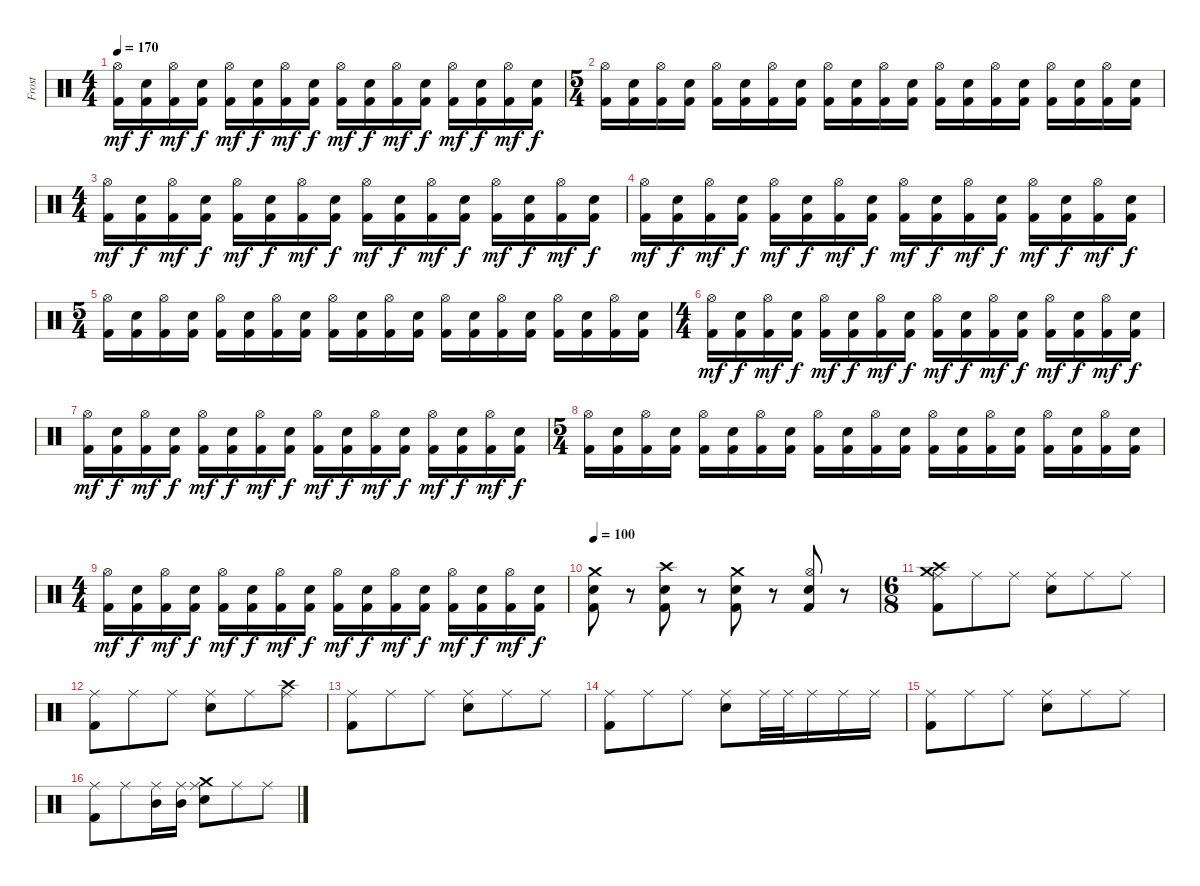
\track ("Frost" "Frost") {instrument percussion}
\staff {score}
\articulation defaults
\ts (4 4)
\tempo 170
\clef neutral
\ks c
("Kick (hit) 2" "Hi-Hat (open)").16{dy mf} ("Kick (hit) 2" "Snare (hit) 2").16{dy f} ("Kick (hit) 2" "Hi-Hat (open)").16{dy mf} ("Kick (hit) 2" "Snare (hit) 2").16{dy f} ("Kick (hit) 2" "Hi-Hat (open)").16{dy mf} ("Kick (hit) 2" "Snare (hit) 2").16{dy f} ("Kick (hit) 2" "Hi-Hat (open)").16{dy mf} ("Kick (hit) 2" "Snare (hit) 2").16{dy f} ("Kick (hit) 2" "Hi-Hat (open)").16{dy mf} ("Kick (hit) 2" "Snare (hit) 2").16{dy f} ("Kick (hit) 2" "Hi-Hat (open)").16{dy mf} ("Kick (hit) 2" "Snare (hit) 2").16{dy f} ("Kick (hit) 2" "Hi-Hat (open)").16{dy mf} ("Kick (hit) 2" "Snare (hit) 2").16{dy f} ("Kick (hit) 2" "Hi-Hat (open)").16{dy mf} ("Kick (hit) 2" "Snare (hit) 2").16{dy f} |
\ts (5 4)
("Kick (hit) 2" "Hi-Hat (open)").16 ("Kick (hit) 2" "Snare (hit) 2").16 ("Kick (hit) 2" "Hi-Hat (open)").16 ("Kick (hit) 2" "Snare (hit) 2").16 ("Kick (hit) 2" "Hi-Hat (open)").16 ("Kick (hit) 2" "Snare (hit) 2").16 ("Kick (hit) 2" "Hi-Hat (open)").16 ("Kick (hit) 2" "Snare (hit) 2").16 ("Kick (hit) 2" "Hi-Hat (open)").16 ("Kick (hit) 2" "Snare (hit) 2").16 ("Kick (hit) 2" "Hi-Hat (open)").16 ("Kick (hit) 2" "Snare (hit) 2").16 ("Kick (hit) 2" "Hi-Hat (open)").16 ("Kick (hit) 2" "Snare (hit) 2").16 ("Kick (hit) 2" "Hi-Hat (open)").16 ("Kick (hit) 2" "Snare (hit) 2").16 ("Kick (hit) 2" "Hi-Hat (open)").16 ("Kick (hit) 2" "Snare (hit) 2").16 ("Kick (hit) 2" "Hi-Hat (open)").16 ("Kick (hit) 2" "Snare (hit) 2").16 |
\ts (4 4)
("Kick (hit) 2" "Hi-Hat (open)").16{dy mf} ("Kick (hit) 2" "Snare (hit) 2").16{dy f} ("Kick (hit) 2" "Hi-Hat (open)").16{dy mf} ("Kick (hit) 2" "Snare (hit) 2").16{dy f} ("Kick (hit) 2" "Hi-Hat (open)").16{dy mf} ("Kick (hit) 2" "Snare (hit) 2").16{dy f} ("Kick (hit) 2" "Hi-Hat (open)").16{dy mf} ("Kick (hit) 2" "Snare (hit) 2").16{dy f} ("Kick (hit) 2" "Hi-Hat (open)").16{dy mf} ("Kick (hit) 2" "Snare (hit) 2").16{dy f} ("Kick (hit) 2" "Hi-Hat (open)").16{dy mf} ("Kick (hit) 2" "Snare (hit) 2").16{dy f} ("Kick (hit) 2" "Hi-Hat (open)").16{dy mf} ("Kick (hit) 2" "Snare (hit) 2").16{dy f} ("Kick (hit) 2" "Hi-Hat (open)").16{dy mf} ("Kick (hit) 2" "Snare (hit) 2").16{dy f} |
("Kick (hit) 2" "Hi-Hat (open)").16{dy mf} ("Kick (hit) 2" "Snare (hit) 2").16{dy f} ("Kick (hit) 2" "Hi-Hat (open)").16{dy mf} ("Kick (hit) 2" "Snare (hit) 2").16{dy f} ("Kick (hit) 2" "Hi-Hat (open)").16{dy mf} ("Kick (hit) 2" "Snare (hit) 2").16{dy f} ("Kick (hit) 2" "Hi-Hat (open)").16{dy mf} ("Kick (hit) 2" "Snare (hit) 2").16{dy f} ("Kick (hit) 2" "Hi-Hat (open)").16{dy mf} ("Kick (hit) 2" "Snare (hit) 2").16{dy f} ("Kick (hit) 2" "Hi-Hat (open)").16{dy mf} ("Kick (hit) 2" "Snare (hit) 2").16{dy f} ("Kick (hit) 2" "Hi-Hat (open)").16{dy mf} ("Kick (hit) 2" "Snare (hit) 2").16{dy f} ("Kick (hit) 2" "Hi-Hat (open)").16{dy mf} ("Kick (hit) 2" "Snare (hit) 2").16{dy f} |
\ts (5 4)
("Kick (hit) 2" "Hi-Hat (open)").16 ("Kick (hit) 2" "Snare (hit) 2").16 ("Kick (hit) 2" "Hi-Hat (open)").16 ("Kick (hit) 2" "Snare (hit) 2").16 ("Kick (hit) 2" "Hi-Hat (open)").16 ("Kick (hit) 2" "Snare (hit) 2").16 ("Kick (hit) 2" "Hi-Hat (open)").16 ("Kick (hit) 2" "Snare (hit) 2").16 ("Kick (hit) 2" "Hi-Hat (open)").16 ("Kick (hit) 2" "Snare (hit) 2").16 ("Kick (hit) 2" "Hi-Hat (open)").16 ("Kick (hit) 2" "Snare (hit) 2").16 ("Kick (hit) 2" "Hi-Hat (open)").16 ("Kick (hit) 2" "Snare (hit) 2").16 ("Kick (hit) 2" "Hi-Hat (open)").16 ("Kick (hit) 2" "Snare (hit) 2").16 ("Kick (hit) 2" "Hi-Hat (open)").16 ("Kick (hit) 2" "Snare (hit) 2").16 ("Kick (hit) 2" "Hi-Hat (open)").16 ("Kick (hit) 2" "Snare (hit) 2").16 |
\ts (4 4)
("Kick (hit) 2" "Hi-Hat (open)").16{dy mf} ("Kick (hit) 2" "Snare (hit) 2").16{dy f} ("Kick (hit) 2" "Hi-Hat (open)").16{dy mf} ("Kick (hit) 2" "Snare (hit) 2").16{dy f} ("Kick (hit) 2" "Hi-Hat (open)").16{dy mf} ("Kick (hit) 2" "Snare (hit) 2").16{dy f} ("Kick (hit) 2" "Hi-Hat (open)").16{dy mf} ("Kick (hit) 2" "Snare (hit) 2").16{dy f} ("Kick (hit) 2" "Hi-Hat (open)").16{dy mf} ("Kick (hit) 2" "Snare (hit) 2").16{dy f} ("Kick (hit) 2" "Hi-Hat (open)").16{dy mf} ("Kick (hit) 2" "Snare (hit) 2").16{dy f} ("Kick (hit) 2" "Hi-Hat (open)").16{dy mf} ("Kick (hit) 2" "Snare (hit) 2").16{dy f} ("Kick (hit) 2" "Hi-Hat (open)").16{dy mf} ("Kick (hit) 2" "Snare (hit) 2").16{dy f} |
("Kick (hit) 2" "Hi-Hat (open)").16{dy mf} ("Kick (hit) 2" "Snare (hit) 2").16{dy f} ("Kick (hit) 2" "Hi-Hat (open)").16{dy mf} ("Kick (hit) 2" "Snare (hit) 2").16{dy f} ("Kick (hit) 2" "Hi-Hat (open)").16{dy mf} ("Kick (hit) 2" "Snare (hit) 2").16{dy f} ("Kick (hit) 2" "Hi-Hat (open)").16{dy mf} ("Kick (hit) 2" "Snare (hit) 2").16{dy f} ("Kick (hit) 2" "Hi-Hat (open)").16{dy mf} ("Kick (hit) 2" "Snare (hit) 2").16{dy f} ("Kick (hit) 2" "Hi-Hat (open)").16{dy mf} ("Kick (hit) 2" "Snare (hit) 2").16{dy f} ("Kick (hit) 2" "Hi-Hat (open)").16{dy mf} ("Kick (hit) 2" "Snare (hit) 2").16{dy f} ("Kick (hit) 2" "Hi-Hat (open)").16{dy mf} ("Kick (hit) 2" "Snare (hit) 2").16{dy f} |
\ts (5 4)
("Kick (hit) 2" "Hi-Hat (open)").16 ("Kick (hit) 2" "Snare (hit) 2").16 ("Kick (hit) 2" "Hi-Hat (open)").16 ("Kick (hit) 2" "Snare (hit) 2").16 ("Kick (hit) 2" "Hi-Hat (open)").16 ("Kick (hit) 2" "Snare (hit) 2").16 ("Kick (hit) 2" "Hi-Hat (open)").16 ("Kick (hit) 2" "Snare (hit) 2").16 ("Kick (hit) 2" "Hi-Hat (open)").16 ("Kick (hit) 2" "Snare (hit) 2").16 ("Kick (hit) 2" "Hi-Hat (open)").16 ("Kick (hit) 2" "Snare (hit) 2").16 ("Kick (hit) 2" "Hi-Hat (open)").16 ("Kick (hit) 2" "Snare (hit) 2").16 ("Kick (hit) 2" "Hi-Hat (open)").16 ("Kick (hit) 2" "Snare (hit) 2").16 ("Kick (hit) 2" "Hi-Hat (open)").16 ("Kick (hit) 2" "Snare (hit) 2").16 ("Kick (hit) 2" "Hi-Hat (open)").16 ("Kick (hit) 2" "Snare (hit) 2").16 |
\ts (4 4)
("Kick (hit) 2" "Hi-Hat (open)").16{dy mf} ("Kick (hit) 2" "Snare (hit) 2").16{dy f} ("Kick (hit) 2" "Hi-Hat (open)").16{dy mf} ("Kick (hit) 2" "Snare (hit) 2").16{dy f} ("Kick (hit) 2" "Hi-Hat (open)").16{dy mf} ("Kick (hit) 2" "Snare (hit) 2").16{dy f} ("Kick (hit) 2" "Hi-Hat (open)").16{dy mf} ("Kick (hit) 2" "Snare (hit) 2").16{dy f} ("Kick (hit) 2" "Hi-Hat (open)").16{dy mf} ("Kick (hit) 2" "Snare (hit) 2").16{dy f} ("Kick (hit) 2" "Hi-Hat (open)").16{dy mf} ("Kick (hit) 2" "Snare (hit) 2").16{dy f} ("Kick (hit) 2" "Hi-Hat (open)").16{dy mf} ("Kick (hit) 2" "Snare (hit) 2").16{dy f} ("Kick (hit) 2" "Hi-Hat (open)").16{dy mf} ("Kick (hit) 2" "Snare (hit) 2").16{dy f} |
\tempo 100
("Kick (hit) 2" "Snare (hit) 2" "Crash medium (hit)").8 r.8 ("Kick (hit) 2" "Snare (hit) 2" "Crash high (hit)").8 r.8 ("Kick (hit) 2" "Snare (hit) 2" "Crash medium (hit)").8 r.8 ("Kick (hit) 2" "Snare (hit) 2" "Hi-Hat (open)").8 r.8 |
\ts (6 8)
("Kick (hit) 2" "Crash high (hit)" "Crash medium (hit)" "Ride (middle)").8 "Ride (middle)".8 "Ride (middle)".8 ("Snare (hit) 2" "Ride (middle)").8 "Ride (middle)".8 "Ride (middle)".8 |
("Kick (hit) 2" "Ride (middle)").8 "Ride (middle)".8 "Ride (middle)".8 ("Snare (hit) 2" "Ride (middle)").8 "Ride (middle)".8 ("Crash high (hit)" "Ride (middle)").8 |
("Kick (hit) 2" "Ride (middle)").8 "Ride (middle)".8 "Ride (middle)".8 ("Snare (hit) 2" "Ride (middle)").8 "Ride (middle)".8 "Ride (middle)".8 |
("Kick (hit) 2" "Ride (middle)").8 "Ride (middle)".8 "Ride (middle)".8 ("Snare (hit) 2" "Ride (middle)").8 "Ride (middle)".32 "Ride (middle)".32 "Ride (middle)".16 "Ride (middle)".16 "Ride (middle)".16 |
("Kick (hit) 2" "Ride (middle)").8 "Ride (middle)".8 "Ride (middle)".8 ("Snare (hit) 2" "Ride (middle)").8 "Ride (middle)".8 "Ride (middle)".8 |
("Kick (hit) 2" "Ride (middle)").8 "Ride (middle)".8 ("Mid Tom (hit)" "Ride (middle)").16 ("Mid Tom (hit)" "Ride (middle)").16 ("Crash medium (hit)" "Snare (hit) 2" "Ride (middle)").8 "Ride (middle)".8 "Ride (middle)".8
